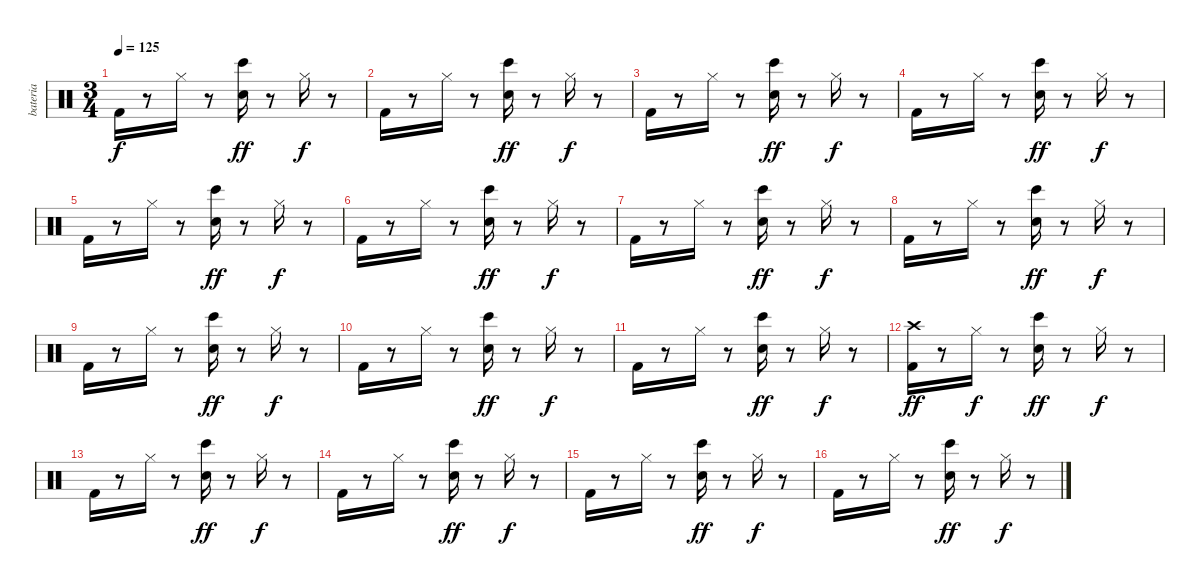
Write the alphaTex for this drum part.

\track ("bateria" "bateria") {instrument percussion}
\staff {score}
\articulation defaults
\ts (3 4)
\tempo 125
\clef neutral
\ks c "Kick (hit) 2".16{dy f}
r.8 "Hi-Hat (closed)".16 r.8 ("Snare (hit) 2" "Bongo High (hit)").16{dy ff volume 15 balance 8} r.8 "Hi-Hat (closed)".16{dy f} r.8 |
"Kick (hit) 2".16{volume 15 balance 8} r.8 "Hi-Hat (closed)".16 r.8 ("Bongo High (hit)" "Snare (hit) 2").16{dy ff} r.8 "Hi-Hat (closed)".16{dy f volume 15 balance 8} r.8 |
"Kick (hit) 2".16{volume 15 balance 8} r.8 "Hi-Hat (closed)".16 r.8 ("Bongo High (hit)" "Snare (hit) 2").16{dy ff} r.8 "Hi-Hat (closed)".16{dy f volume 15 balance 8} r.8 |
"Kick (hit) 2".16 r.8 "Hi-Hat (closed)".16 r.8 ("Snare (hit) 2" "Bongo High (hit)").16{dy ff volume 15 balance 8} r.8 "Hi-Hat (closed)".16{dy f} r.8 |
"Kick (hit) 2".16{volume 15 balance 8} r.8 "Hi-Hat (closed)".16 r.8 ("Bongo High (hit)" "Snare (hit) 2").16{dy ff} r.8 "Hi-Hat (closed)".16{dy f volume 15 balance 8} r.8 |
"Kick (hit) 2".16{volume 15 balance 8} r.8 "Hi-Hat (closed)".16 r.8 ("Bongo High (hit)" "Snare (hit) 2").16{dy ff} r.8 "Hi-Hat (closed)".16{dy f volume 15 balance 8} r.8 |
"Kick (hit) 2".16 r.8 "Hi-Hat (closed)".16 r.8 ("Snare (hit) 2" "Bongo High (hit)").16{dy ff volume 15 balance 8} r.8 "Hi-Hat (closed)".16{dy f} r.8 |
"Kick (hit) 2".16{volume 15 balance 8} r.8 "Hi-Hat (closed)".16 r.8 ("Bongo High (hit)" "Snare (hit) 2").16{dy ff} r.8 "Hi-Hat (closed)".16{dy f volume 15 balance 8} r.8 |
"Kick (hit) 2".16{volume 15 balance 8} r.8 "Hi-Hat (closed)".16 r.8 ("Bongo High (hit)" "Snare (hit) 2").16{dy ff} r.8 "Hi-Hat (closed)".16{dy f volume 15 balance 8} r.8 |
"Kick (hit) 2".16 r.8 "Hi-Hat (closed)".16 r.8 ("Snare (hit) 2" "Bongo High (hit)").16{dy ff volume 15 balance 8} r.8 "Hi-Hat (closed)".16{dy f} r.8 |
"Kick (hit) 2".16{volume 15 balance 8} r.8 "Hi-Hat (closed)".16 r.8 ("Bongo High (hit)" "Snare (hit) 2").16{dy ff} r.8 "Hi-Hat (closed)".16{dy f volume 15 balance 8} r.8 |
("Crash high (hit)" "Kick (hit) 2").16{dy ff volume 15 balance 8} r.8 "Hi-Hat (closed)".16{dy f} r.8 ("Bongo High (hit)" "Snare (hit) 2").16{dy ff} r.8 "Hi-Hat (closed)".16{dy f volume 15 balance 8} r.8 |
"Kick (hit) 2".16 r.8 "Hi-Hat (closed)".16 r.8 ("Snare (hit) 2" "Bongo High (hit)").16{dy ff volume 15 balance 8} r.8 "Hi-Hat (closed)".16{dy f} r.8 |
"Kick (hit) 2".16{volume 15 balance 8} r.8 "Hi-Hat (closed)".16 r.8 ("Bongo High (hit)" "Snare (hit) 2").16{dy ff} r.8 "Hi-Hat (closed)".16{dy f volume 15 balance 8} r.8 |
"Kick (hit) 2".16{volume 15 balance 8} r.8 "Hi-Hat (closed)".16 r.8 ("Bongo High (hit)" "Snare (hit) 2").16{dy ff} r.8 "Hi-Hat (closed)".16{dy f volume 15 balance 8} r.8 |
"Kick (hit) 2".16 r.8 "Hi-Hat (closed)".16 r.8 ("Snare (hit) 2" "Bongo High (hit)").16{dy ff volume 15 balance 8} r.8 "Hi-Hat (closed)".16{dy f} r.8
